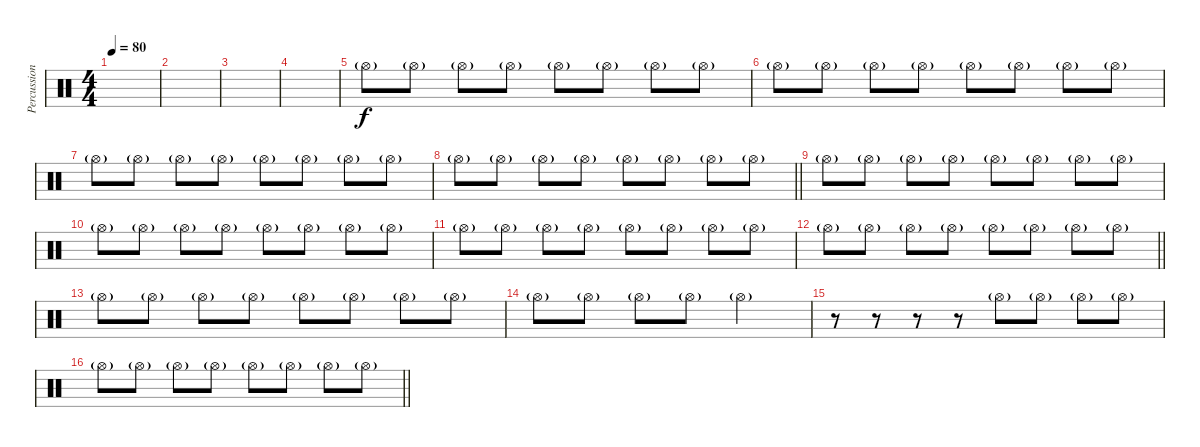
\track ("Percussion" "Percussion") {instrument percussion}
\staff {score}
\articulation defaults
\ts (4 4)
\tempo 80
\clef neutral
\ks c
|
|
|
|
"Hi-Hat (open)"{g}.8 "Hi-Hat (open)"{g}.8 "Hi-Hat (open)"{g}.8 "Hi-Hat (open)"{g}.8 "Hi-Hat (open)"{g}.8 "Hi-Hat (open)"{g}.8 "Hi-Hat (open)"{g}.8 "Hi-Hat (open)"{g}.8 |
"Hi-Hat (open)"{g}.8 "Hi-Hat (open)"{g}.8 "Hi-Hat (open)"{g}.8 "Hi-Hat (open)"{g}.8 "Hi-Hat (open)"{g}.8 "Hi-Hat (open)"{g}.8 "Hi-Hat (open)"{g}.8 "Hi-Hat (open)"{g}.8 |
"Hi-Hat (open)"{g}.8 "Hi-Hat (open)"{g}.8 "Hi-Hat (open)"{g}.8 "Hi-Hat (open)"{g}.8 "Hi-Hat (open)"{g}.8 "Hi-Hat (open)"{g}.8 "Hi-Hat (open)"{g}.8 "Hi-Hat (open)"{g}.8 |
\barLineRight lightlight "Hi-Hat (open)"{g}.8 "Hi-Hat (open)"{g}.8 "Hi-Hat (open)"{g}.8 "Hi-Hat (open)"{g}.8 "Hi-Hat (open)"{g}.8 "Hi-Hat (open)"{g}.8 "Hi-Hat (open)"{g}.8 "Hi-Hat (open)"{g}.8
|
"Hi-Hat (open)"{g}.8 "Hi-Hat (open)"{g}.8 "Hi-Hat (open)"{g}.8 "Hi-Hat (open)"{g}.8 "Hi-Hat (open)"{g}.8 "Hi-Hat (open)"{g}.8 "Hi-Hat (open)"{g}.8 "Hi-Hat (open)"{g}.8 |
"Hi-Hat (open)"{g}.8 "Hi-Hat (open)"{g}.8 "Hi-Hat (open)"{g}.8 "Hi-Hat (open)"{g}.8 "Hi-Hat (open)"{g}.8 "Hi-Hat (open)"{g}.8 "Hi-Hat (open)"{g}.8 "Hi-Hat (open)"{g}.8 |
"Hi-Hat (open)"{g}.8 "Hi-Hat (open)"{g}.8 "Hi-Hat (open)"{g}.8 "Hi-Hat (open)"{g}.8 "Hi-Hat (open)"{g}.8 "Hi-Hat (open)"{g}.8 "Hi-Hat (open)"{g}.8 "Hi-Hat (open)"{g}.8 |
\barLineRight lightlight "Hi-Hat (open)"{g}.8 "Hi-Hat (open)"{g}.8 "Hi-Hat (open)"{g}.8 "Hi-Hat (open)"{g}.8 "Hi-Hat (open)"{g}.8 "Hi-Hat (open)"{g}.8 "Hi-Hat (open)"{g}.8 "Hi-Hat (open)"{g}.8
|
"Hi-Hat (open)"{g}.8 "Hi-Hat (open)"{g}.8 "Hi-Hat (open)"{g}.8 "Hi-Hat (open)"{g}.8 "Hi-Hat (open)"{g}.8 "Hi-Hat (open)"{g}.8 "Hi-Hat (open)"{g}.8 "Hi-Hat (open)"{g}.8 |
"Hi-Hat (open)"{g}.8 "Hi-Hat (open)"{g}.8 "Hi-Hat (open)"{g}.8 "Hi-Hat (open)"{g}.8 "Hi-Hat (open)"{g}.2 |
r.8 r.8 r.8 r.8 "Hi-Hat (open)"{g}.8 "Hi-Hat (open)"{g}.8 "Hi-Hat (open)"{g}.8 "Hi-Hat (open)"{g}.8 |
\barLineRight lightlight "Hi-Hat (open)"{g}.8 "Hi-Hat (open)"{g}.8 "Hi-Hat (open)"{g}.8 "Hi-Hat (open)"{g}.8 "Hi-Hat (open)"{g}.8 "Hi-Hat (open)"{g}.8 "Hi-Hat (open)"{g}.8 "Hi-Hat (open)"{g}.8
